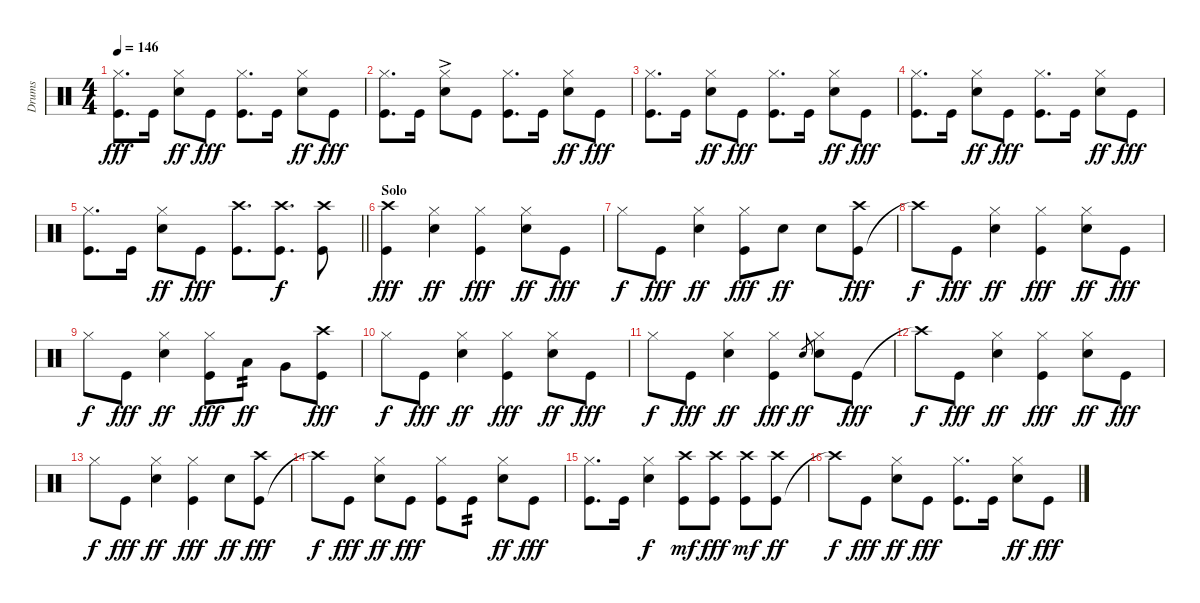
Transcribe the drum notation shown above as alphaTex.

\track ("Drums" "Drums") {instrument percussion}
\staff {score}
\articulation defaults
\ts (4 4)
\tempo 146
\clef neutral
\ks c
("Kick (hit)" "Hi-Hat (closed)").8{d dy fff} "Kick (hit)".16 ("Snare (hit) 2" "Hi-Hat (closed)").8{dy ff} "Kick (hit)".8{dy fff} ("Kick (hit)" "Hi-Hat (closed)").8{d} "Kick (hit)".16 ("Snare (hit) 2" "Hi-Hat (closed)").8{dy ff} "Kick (hit)".8{dy fff} |
("Kick (hit)" "Hi-Hat (closed)").8{d} "Kick (hit)".16 ("Snare (hit) 2"{ac} "Hi-Hat (closed)").8 "Kick (hit)".8 ("Kick (hit)" "Hi-Hat (closed)").8{d} "Kick (hit)".16 ("Snare (hit) 2" "Hi-Hat (closed)").8{dy ff} "Kick (hit)".8{dy fff} |
("Kick (hit)" "Hi-Hat (closed)").8{d} "Kick (hit)".16 ("Snare (hit) 2" "Hi-Hat (closed)").8{dy ff} "Kick (hit)".8{dy fff} ("Kick (hit)" "Hi-Hat (closed)").8{d} "Kick (hit)".16 ("Snare (hit) 2" "Hi-Hat (closed)").8{dy ff} "Kick (hit)".8{dy fff} |
("Kick (hit)" "Hi-Hat (closed)").8{d} "Kick (hit)".16 ("Snare (hit) 2" "Hi-Hat (closed)").8{dy ff} "Kick (hit)".8{dy fff} ("Kick (hit)" "Hi-Hat (closed)").8{d} "Kick (hit)".16 ("Snare (hit) 2" "Hi-Hat (closed)").8{dy ff} "Kick (hit)".8{dy fff} |
\barLineRight lightlight
("Kick (hit)" "Hi-Hat (closed)").8{d} "Kick (hit)".16 ("Snare (hit) 2" "Hi-Hat (closed)").8{dy ff} "Kick (hit)".8{dy fff} ("Kick (hit)" "Crash high (hit)").8{d} ("Crash high (hit)" "Kick (hit)").8{d dy f} ("Crash high (hit)" "Kick (hit)").8 |
\section ("" "Solo")
("Kick (hit)" "Crash high (hit)").4{dy fff} ("Snare (hit) 2" "Hi-Hat (closed)").4{dy ff} ("Hi-Hat (closed)" "Kick (hit)").4{dy fff} ("Hi-Hat (closed)" "Snare (hit) 2").8{dy ff} "Kick (hit)".8{dy fff} |
"Hi-Hat (closed)".8{dy f} "Kick (hit)".8{dy fff} ("Snare (hit) 2" "Hi-Hat (closed)").4{dy ff} ("Hi-Hat (closed)" "Kick (hit)").8{dy fff} "Snare (hit) 2".8{dy ff} "Snare (hit) 2".8 ("Kick (hit)" "Crash high (hit)").8{dy fff} |
"Crash high (hit)"{t}.8{dy f} "Kick (hit)".8{dy fff} ("Snare (hit) 2" "Hi-Hat (closed)").4{dy ff} ("Kick (hit)" "Hi-Hat (closed)").4{dy fff} ("Snare (hit) 2" "Hi-Hat (closed)").8{dy ff} "Kick (hit)".8{dy fff} |
"Hi-Hat (closed)".8{dy f} "Kick (hit)".8{dy fff} ("Snare (hit) 2" "Hi-Hat (closed)").4{dy ff} ("Hi-Hat (closed)" "Kick (hit)").8{dy fff} "Low Tom (hit)".8{tp 2 dy ff} "Very Low Tom (hit)".8 ("Kick (hit)" "Crash high (hit)").8{dy fff} |
"Hi-Hat (closed)".8{dy f} "Kick (hit)".8{dy fff} ("Snare (hit) 2" "Hi-Hat (closed)").4{dy ff} ("Kick (hit)" "Hi-Hat (closed)").4{dy fff} ("Snare (hit) 2" "Hi-Hat (closed)").8{dy ff} "Kick (hit)".8{dy fff} |
"Hi-Hat (closed)".8{dy f} "Kick (hit)".8{dy fff} ("Snare (hit) 2" "Hi-Hat (closed)").4{dy ff} ("Kick (hit)" "Hi-Hat (closed)").4{dy fff} "Snare (hit) 2".8{gr dy ff} ("Snare (hit) 2" "Hi-Hat (closed)").8 "Kick (hit)".8{dy fff} |
"Crash high (hit)"{t}.8{dy f} "Kick (hit)".8{dy fff} ("Snare (hit) 2" "Hi-Hat (closed)").4{dy ff} ("Kick (hit)" "Hi-Hat (closed)").4{dy fff} ("Snare (hit) 2" "Hi-Hat (closed)").8{dy ff} "Kick (hit)".8{dy fff} |
"Hi-Hat (closed)".8{dy f} "Kick (hit)".8{dy fff} ("Snare (hit) 2" "Hi-Hat (closed)").4{dy ff} ("Hi-Hat (closed)" "Kick (hit)").4{dy fff} "Snare (hit) 2".8{dy ff} ("Kick (hit)" "Crash high (hit)").8{dy fff} |
"Crash high (hit)"{t}.8{dy f} "Kick (hit)".8{dy fff} ("Snare (hit) 2" "Hi-Hat (closed)").8{dy ff} "Kick (hit)".8{dy fff} ("Kick (hit)" "Hi-Hat (closed)").8 "Kick (hit)".8{tp 2} ("Snare (hit) 2" "Hi-Hat (closed)").8{dy ff} "Kick (hit)".8{dy fff} |
("Kick (hit)" "Hi-Hat (closed)").8{d} "Kick (hit)".16 ("Snare (hit) 2" "Hi-Hat (closed)").4{dy f} ("Kick (hit)" "Crash high (hit)").8{dy mf} ("Kick (hit)" "Crash high (hit)").8{dy fff} ("Kick (hit)" "Crash high (hit)").8{dy mf} ("Kick (hit)" "Crash high (hit)").8{dy ff} |
"Crash high (hit)"{t}.8{dy f} "Kick (hit)".8{dy fff} ("Snare (hit) 2" "Hi-Hat (closed)").8{dy ff} "Kick (hit)".8{dy fff} ("Kick (hit)" "Hi-Hat (closed)").8{d} "Kick (hit)".16 ("Snare (hit) 2" "Hi-Hat (closed)").8{dy ff} "Kick (hit)".8{dy fff}
